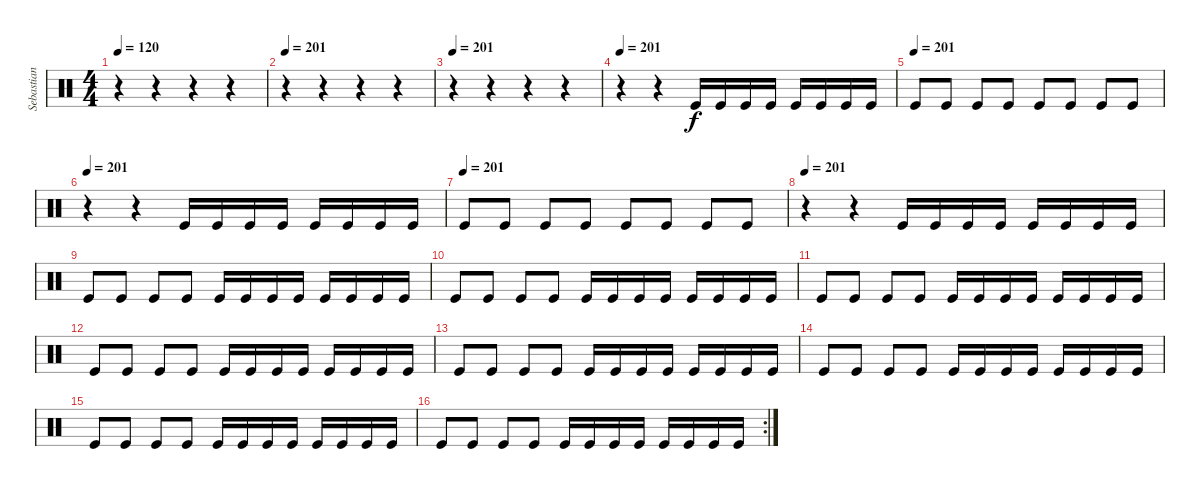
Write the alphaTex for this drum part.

\track ("Sebastian" "Sebastian") {instrument percussion}
\staff {score}
\articulation defaults
\ts (4 4)
\tempo 120
\tempo 201
\tempo 120
\clef neutral
\ks c
r.4{dy f} r.4 r.4 r.4 |
\tempo 201
r.4 r.4 r.4 r.4 |
\tempo 201
r.4 r.4 r.4 r.4 |
\tempo 201
r.4 r.4 "Kick (hit)".16 "Kick (hit)".16 "Kick (hit)".16 "Kick (hit)".16 "Kick (hit)".16 "Kick (hit)".16 "Kick (hit)".16 "Kick (hit)".16 |
\tempo (201)
"Kick (hit)".8 "Kick (hit)".8 "Kick (hit)".8 "Kick (hit)".8 "Kick (hit)".8 "Kick (hit)".8 "Kick (hit)".8 "Kick (hit)".8 |
\tempo 201
r.4 r.4 "Kick (hit)".16 "Kick (hit)".16 "Kick (hit)".16 "Kick (hit)".16 "Kick (hit)".16 "Kick (hit)".16 "Kick (hit)".16 "Kick (hit)".16 |
\tempo (201)
"Kick (hit)".8 "Kick (hit)".8 "Kick (hit)".8 "Kick (hit)".8 "Kick (hit)".8 "Kick (hit)".8 "Kick (hit)".8 "Kick (hit)".8 |
\tempo 201
r.4 r.4 "Kick (hit)".16 "Kick (hit)".16 "Kick (hit)".16 "Kick (hit)".16 "Kick (hit)".16 "Kick (hit)".16 "Kick (hit)".16 "Kick (hit)".16 |
"Kick (hit)".8 "Kick (hit)".8 "Kick (hit)".8 "Kick (hit)".8 "Kick (hit)".16 "Kick (hit)".16 "Kick (hit)".16 "Kick (hit)".16 "Kick (hit)".16 "Kick (hit)".16 "Kick (hit)".16 "Kick (hit)".16 |
"Kick (hit)".8 "Kick (hit)".8 "Kick (hit)".8 "Kick (hit)".8 "Kick (hit)".16 "Kick (hit)".16 "Kick (hit)".16 "Kick (hit)".16 "Kick (hit)".16 "Kick (hit)".16 "Kick (hit)".16 "Kick (hit)".16 |
"Kick (hit)".8 "Kick (hit)".8 "Kick (hit)".8 "Kick (hit)".8 "Kick (hit)".16 "Kick (hit)".16 "Kick (hit)".16 "Kick (hit)".16 "Kick (hit)".16 "Kick (hit)".16 "Kick (hit)".16 "Kick (hit)".16 |
"Kick (hit)".8 "Kick (hit)".8 "Kick (hit)".8 "Kick (hit)".8 "Kick (hit)".16 "Kick (hit)".16 "Kick (hit)".16 "Kick (hit)".16 "Kick (hit)".16 "Kick (hit)".16 "Kick (hit)".16 "Kick (hit)".16 |
"Kick (hit)".8 "Kick (hit)".8 "Kick (hit)".8 "Kick (hit)".8 "Kick (hit)".16 "Kick (hit)".16 "Kick (hit)".16 "Kick (hit)".16 "Kick (hit)".16 "Kick (hit)".16 "Kick (hit)".16 "Kick (hit)".16 |
"Kick (hit)".8 "Kick (hit)".8 "Kick (hit)".8 "Kick (hit)".8 "Kick (hit)".16 "Kick (hit)".16 "Kick (hit)".16 "Kick (hit)".16 "Kick (hit)".16 "Kick (hit)".16 "Kick (hit)".16 "Kick (hit)".16 |
"Kick (hit)".8 "Kick (hit)".8 "Kick (hit)".8 "Kick (hit)".8 "Kick (hit)".16 "Kick (hit)".16 "Kick (hit)".16 "Kick (hit)".16 "Kick (hit)".16 "Kick (hit)".16 "Kick (hit)".16 "Kick (hit)".16 |
\rc 2 "Kick (hit)".8 "Kick (hit)".8 "Kick (hit)".8 "Kick (hit)".8 "Kick (hit)".16 "Kick (hit)".16 "Kick (hit)".16 "Kick (hit)".16 "Kick (hit)".16 "Kick (hit)".16 "Kick (hit)".16 "Kick (hit)".16
